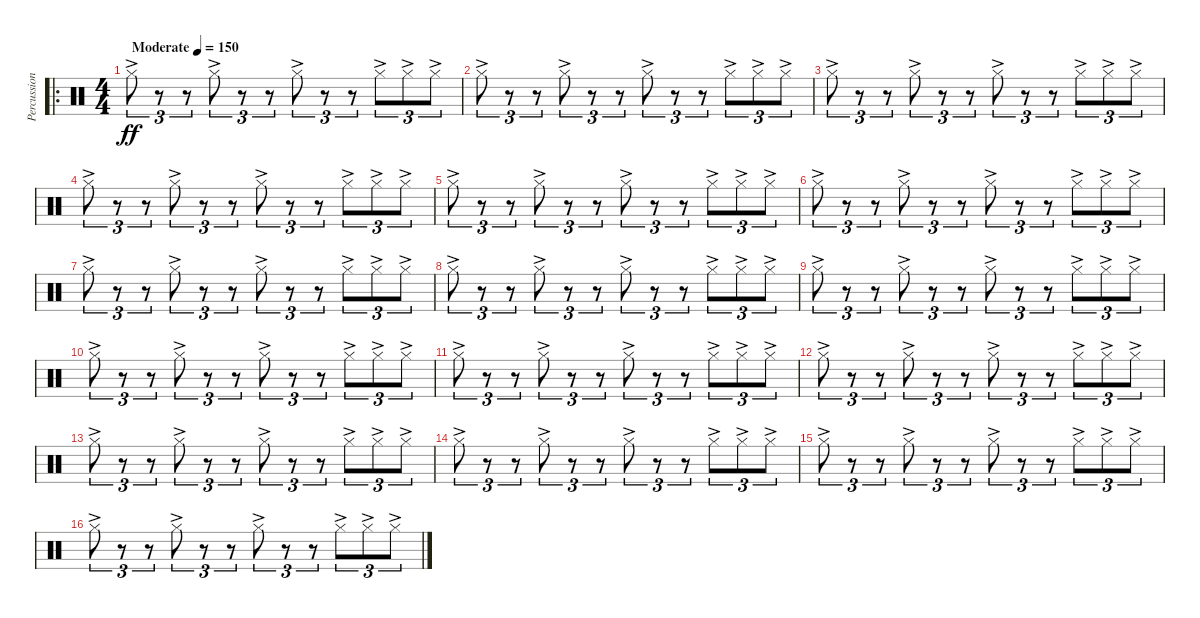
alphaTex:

\track ("Percussion" "Percussion") {instrument percussion}
\staff {score}
\articulation defaults
\ro
\ts (4 4)
\tempo (150 "Moderate")
\clef neutral
\ks c "Hi-Hat (closed)"{ac}.8{tu (3 2) dy ff}
r.8{tu (3 2)} r.8{tu (3 2)} "Hi-Hat (closed)"{ac}.8{tu (3 2)} r.8{tu (3 2)} r.8{tu (3 2)} "Hi-Hat (closed)"{ac}.8{tu (3 2)} r.8{tu (3 2)} r.8{tu (3 2)} "Hi-Hat (closed)"{ac}.8{tu (3 2)} "Hi-Hat (closed)"{ac}.8{tu (3 2)} "Hi-Hat (closed)"{ac}.8{tu (3 2)} |
"Hi-Hat (closed)"{ac}.8{tu (3 2)} r.8{tu (3 2)} r.8{tu (3 2)} "Hi-Hat (closed)"{ac}.8{tu (3 2)} r.8{tu (3 2)} r.8{tu (3 2)} "Hi-Hat (closed)"{ac}.8{tu (3 2)} r.8{tu (3 2)} r.8{tu (3 2)} "Hi-Hat (closed)"{ac}.8{tu (3 2)} "Hi-Hat (closed)"{ac}.8{tu (3 2)} "Hi-Hat (closed)"{ac}.8{tu (3 2)} |
"Hi-Hat (closed)"{ac}.8{tu (3 2)} r.8{tu (3 2)} r.8{tu (3 2)} "Hi-Hat (closed)"{ac}.8{tu (3 2)} r.8{tu (3 2)} r.8{tu (3 2)} "Hi-Hat (closed)"{ac}.8{tu (3 2)} r.8{tu (3 2)} r.8{tu (3 2)} "Hi-Hat (closed)"{ac}.8{tu (3 2)} "Hi-Hat (closed)"{ac}.8{tu (3 2)} "Hi-Hat (closed)"{ac}.8{tu (3 2)} |
"Hi-Hat (closed)"{ac}.8{tu (3 2)} r.8{tu (3 2)} r.8{tu (3 2)} "Hi-Hat (closed)"{ac}.8{tu (3 2)} r.8{tu (3 2)} r.8{tu (3 2)} "Hi-Hat (closed)"{ac}.8{tu (3 2)} r.8{tu (3 2)} r.8{tu (3 2)} "Hi-Hat (closed)"{ac}.8{tu (3 2)} "Hi-Hat (closed)"{ac}.8{tu (3 2)} "Hi-Hat (closed)"{ac}.8{tu (3 2)} |
"Hi-Hat (closed)"{ac}.8{tu (3 2)} r.8{tu (3 2)} r.8{tu (3 2)} "Hi-Hat (closed)"{ac}.8{tu (3 2)} r.8{tu (3 2)} r.8{tu (3 2)} "Hi-Hat (closed)"{ac}.8{tu (3 2)} r.8{tu (3 2)} r.8{tu (3 2)} "Hi-Hat (closed)"{ac}.8{tu (3 2)} "Hi-Hat (closed)"{ac}.8{tu (3 2)} "Hi-Hat (closed)"{ac}.8{tu (3 2)} |
"Hi-Hat (closed)"{ac}.8{tu (3 2)} r.8{tu (3 2)} r.8{tu (3 2)} "Hi-Hat (closed)"{ac}.8{tu (3 2)} r.8{tu (3 2)} r.8{tu (3 2)} "Hi-Hat (closed)"{ac}.8{tu (3 2)} r.8{tu (3 2)} r.8{tu (3 2)} "Hi-Hat (closed)"{ac}.8{tu (3 2)} "Hi-Hat (closed)"{ac}.8{tu (3 2)} "Hi-Hat (closed)"{ac}.8{tu (3 2)} |
"Hi-Hat (closed)"{ac}.8{tu (3 2)} r.8{tu (3 2)} r.8{tu (3 2)} "Hi-Hat (closed)"{ac}.8{tu (3 2)} r.8{tu (3 2)} r.8{tu (3 2)} "Hi-Hat (closed)"{ac}.8{tu (3 2)} r.8{tu (3 2)} r.8{tu (3 2)} "Hi-Hat (closed)"{ac}.8{tu (3 2)} "Hi-Hat (closed)"{ac}.8{tu (3 2)} "Hi-Hat (closed)"{ac}.8{tu (3 2)} |
"Hi-Hat (closed)"{ac}.8{tu (3 2)} r.8{tu (3 2)} r.8{tu (3 2)} "Hi-Hat (closed)"{ac}.8{tu (3 2)} r.8{tu (3 2)} r.8{tu (3 2)} "Hi-Hat (closed)"{ac}.8{tu (3 2)} r.8{tu (3 2)} r.8{tu (3 2)} "Hi-Hat (closed)"{ac}.8{tu (3 2)} "Hi-Hat (closed)"{ac}.8{tu (3 2)} "Hi-Hat (closed)"{ac}.8{tu (3 2)} |
"Hi-Hat (closed)"{ac}.8{tu (3 2)} r.8{tu (3 2)} r.8{tu (3 2)} "Hi-Hat (closed)"{ac}.8{tu (3 2)} r.8{tu (3 2)} r.8{tu (3 2)} "Hi-Hat (closed)"{ac}.8{tu (3 2)} r.8{tu (3 2)} r.8{tu (3 2)} "Hi-Hat (closed)"{ac}.8{tu (3 2)} "Hi-Hat (closed)"{ac}.8{tu (3 2)} "Hi-Hat (closed)"{ac}.8{tu (3 2)} |
"Hi-Hat (closed)"{ac}.8{tu (3 2)} r.8{tu (3 2)} r.8{tu (3 2)} "Hi-Hat (closed)"{ac}.8{tu (3 2)} r.8{tu (3 2)} r.8{tu (3 2)} "Hi-Hat (closed)"{ac}.8{tu (3 2)} r.8{tu (3 2)} r.8{tu (3 2)} "Hi-Hat (closed)"{ac}.8{tu (3 2)} "Hi-Hat (closed)"{ac}.8{tu (3 2)} "Hi-Hat (closed)"{ac}.8{tu (3 2)} |
"Hi-Hat (closed)"{ac}.8{tu (3 2)} r.8{tu (3 2)} r.8{tu (3 2)} "Hi-Hat (closed)"{ac}.8{tu (3 2)} r.8{tu (3 2)} r.8{tu (3 2)} "Hi-Hat (closed)"{ac}.8{tu (3 2)} r.8{tu (3 2)} r.8{tu (3 2)} "Hi-Hat (closed)"{ac}.8{tu (3 2)} "Hi-Hat (closed)"{ac}.8{tu (3 2)} "Hi-Hat (closed)"{ac}.8{tu (3 2)} |
"Hi-Hat (closed)"{ac}.8{tu (3 2)} r.8{tu (3 2)} r.8{tu (3 2)} "Hi-Hat (closed)"{ac}.8{tu (3 2)} r.8{tu (3 2)} r.8{tu (3 2)} "Hi-Hat (closed)"{ac}.8{tu (3 2)} r.8{tu (3 2)} r.8{tu (3 2)} "Hi-Hat (closed)"{ac}.8{tu (3 2)} "Hi-Hat (closed)"{ac}.8{tu (3 2)} "Hi-Hat (closed)"{ac}.8{tu (3 2)} |
"Hi-Hat (closed)"{ac}.8{tu (3 2)} r.8{tu (3 2)} r.8{tu (3 2)} "Hi-Hat (closed)"{ac}.8{tu (3 2)} r.8{tu (3 2)} r.8{tu (3 2)} "Hi-Hat (closed)"{ac}.8{tu (3 2)} r.8{tu (3 2)} r.8{tu (3 2)} "Hi-Hat (closed)"{ac}.8{tu (3 2)} "Hi-Hat (closed)"{ac}.8{tu (3 2)} "Hi-Hat (closed)"{ac}.8{tu (3 2)} |
"Hi-Hat (closed)"{ac}.8{tu (3 2)} r.8{tu (3 2)} r.8{tu (3 2)} "Hi-Hat (closed)"{ac}.8{tu (3 2)} r.8{tu (3 2)} r.8{tu (3 2)} "Hi-Hat (closed)"{ac}.8{tu (3 2)} r.8{tu (3 2)} r.8{tu (3 2)} "Hi-Hat (closed)"{ac}.8{tu (3 2)} "Hi-Hat (closed)"{ac}.8{tu (3 2)} "Hi-Hat (closed)"{ac}.8{tu (3 2)} |
"Hi-Hat (closed)"{ac}.8{tu (3 2)} r.8{tu (3 2)} r.8{tu (3 2)} "Hi-Hat (closed)"{ac}.8{tu (3 2)} r.8{tu (3 2)} r.8{tu (3 2)} "Hi-Hat (closed)"{ac}.8{tu (3 2)} r.8{tu (3 2)} r.8{tu (3 2)} "Hi-Hat (closed)"{ac}.8{tu (3 2)} "Hi-Hat (closed)"{ac}.8{tu (3 2)} "Hi-Hat (closed)"{ac}.8{tu (3 2)} |
"Hi-Hat (closed)"{ac}.8{tu (3 2)} r.8{tu (3 2)} r.8{tu (3 2)} "Hi-Hat (closed)"{ac}.8{tu (3 2)} r.8{tu (3 2)} r.8{tu (3 2)} "Hi-Hat (closed)"{ac}.8{tu (3 2)} r.8{tu (3 2)} r.8{tu (3 2)} "Hi-Hat (closed)"{ac}.8{tu (3 2)} "Hi-Hat (closed)"{ac}.8{tu (3 2)} "Hi-Hat (closed)"{ac}.8{tu (3 2)}
